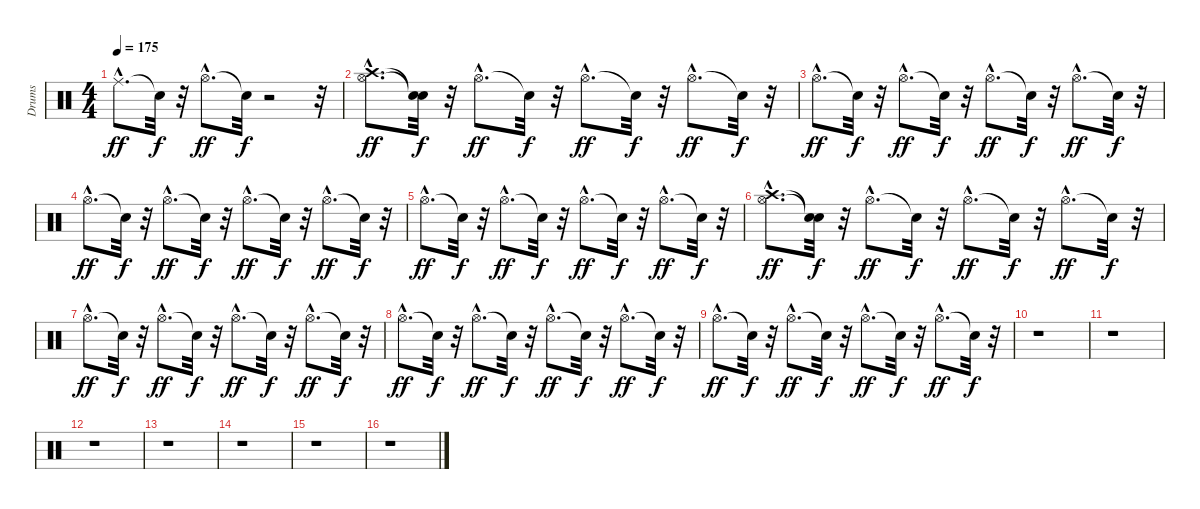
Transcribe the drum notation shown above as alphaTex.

\track ("Drums" "Drums") {instrument percussion}
\staff {score}
\articulation defaults
\ts (4 4)
\tempo 175
\clef neutral
\ks c "Ride (middle)"{hac}.8{d dy ff} "Snare (hit)"{t}.32{dy f}
r.32 "Hi-Hat (open)"{hac}.8{d dy ff} "Snare (hit)"{t}.32{dy f} r.2 r.32 |
("Hi-Hat (open)"{hac} "Crash high (hit)"{hac}).8{d dy ff} ("Snare (hit)"{t} "Snare (hit)"{t}).32{dy f} r.32 "Hi-Hat (open)"{hac}.8{d dy ff} "Snare (hit)"{t}.32{dy f} r.32 "Hi-Hat (open)"{hac}.8{d dy ff} "Snare (hit)"{t}.32{dy f} r.32 "Hi-Hat (open)"{hac}.8{d dy ff} "Snare (hit)"{t}.32{dy f} r.32 |
"Hi-Hat (open)"{hac}.8{d dy ff} "Snare (hit)"{t}.32{dy f} r.32 "Hi-Hat (open)"{hac}.8{d dy ff} "Snare (hit)"{t}.32{dy f} r.32 "Hi-Hat (open)"{hac}.8{d dy ff} "Snare (hit)"{t}.32{dy f} r.32 "Hi-Hat (open)"{hac}.8{d dy ff} "Snare (hit)"{t}.32{dy f} r.32 |
"Hi-Hat (open)"{hac}.8{d dy ff} "Snare (hit)"{t}.32{dy f} r.32 "Hi-Hat (open)"{hac}.8{d dy ff} "Snare (hit)"{t}.32{dy f} r.32 "Hi-Hat (open)"{hac}.8{d dy ff} "Snare (hit)"{t}.32{dy f} r.32 "Hi-Hat (open)"{hac}.8{d dy ff} "Snare (hit)"{t}.32{dy f} r.32 |
"Hi-Hat (open)"{hac}.8{d dy ff} "Snare (hit)"{t}.32{dy f} r.32 "Hi-Hat (open)"{hac}.8{d dy ff} "Snare (hit)"{t}.32{dy f} r.32 "Hi-Hat (open)"{hac}.8{d dy ff} "Snare (hit)"{t}.32{dy f} r.32 "Hi-Hat (open)"{hac}.8{d dy ff} "Snare (hit)"{t}.32{dy f} r.32 |
("Hi-Hat (open)"{hac} "Crash high (hit)"{hac}).8{d dy ff} ("Snare (hit)"{t} "Snare (hit)"{t}).32{dy f} r.32 "Hi-Hat (open)"{hac}.8{d dy ff} "Snare (hit)"{t}.32{dy f} r.32 "Hi-Hat (open)"{hac}.8{d dy ff} "Snare (hit)"{t}.32{dy f} r.32 "Hi-Hat (open)"{hac}.8{d dy ff} "Snare (hit)"{t}.32{dy f} r.32 |
"Hi-Hat (open)"{hac}.8{d dy ff} "Snare (hit)"{t}.32{dy f} r.32 "Hi-Hat (open)"{hac}.8{d dy ff} "Snare (hit)"{t}.32{dy f} r.32 "Hi-Hat (open)"{hac}.8{d dy ff} "Snare (hit)"{t}.32{dy f} r.32 "Hi-Hat (open)"{hac}.8{d dy ff} "Snare (hit)"{t}.32{dy f} r.32 |
"Hi-Hat (open)"{hac}.8{d dy ff} "Snare (hit)"{t}.32{dy f} r.32 "Hi-Hat (open)"{hac}.8{d dy ff} "Snare (hit)"{t}.32{dy f} r.32 "Hi-Hat (open)"{hac}.8{d dy ff} "Snare (hit)"{t}.32{dy f} r.32 "Hi-Hat (open)"{hac}.8{d dy ff} "Snare (hit)"{t}.32{dy f} r.32 |
"Hi-Hat (open)"{hac}.8{d dy ff} "Snare (hit)"{t}.32{dy f} r.32 "Hi-Hat (open)"{hac}.8{d dy ff} "Snare (hit)"{t}.32{dy f} r.32 "Hi-Hat (open)"{hac}.8{d dy ff} "Snare (hit)"{t}.32{dy f} r.32 "Hi-Hat (open)"{hac}.8{d dy ff} "Snare (hit)"{t}.32{dy f} r.32 |
r.1 |
r.1 |
r.1 |
r.1 |
r.1 |
r.1 |
r.1
